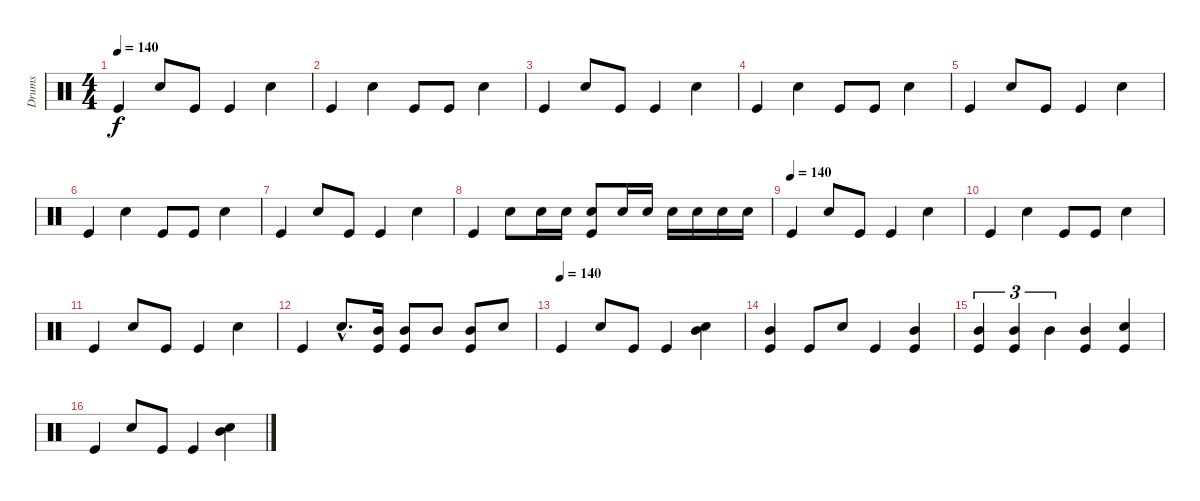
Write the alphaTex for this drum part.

\track ("Drums" "Drums") {instrument percussion}
\staff {score}
\articulation defaults
\ts (4 4)
\tempo 140
\clef neutral
\ks c "Kick (hit)".4{dy f} "Snare (hit) 2".8 "Kick (hit)".8 "Kick (hit)".4 "Snare (hit) 2".4
|
"Kick (hit)".4 "Snare (hit) 2".4 "Kick (hit)".8 "Kick (hit)".8 "Snare (hit) 2".4 |
"Kick (hit)".4 "Snare (hit) 2".8 "Kick (hit)".8 "Kick (hit)".4 "Snare (hit) 2".4 |
"Kick (hit)".4 "Snare (hit) 2".4 "Kick (hit)".8 "Kick (hit)".8 "Snare (hit) 2".4 |
"Kick (hit)".4 "Snare (hit) 2".8 "Kick (hit)".8 "Kick (hit)".4 "Snare (hit) 2".4 |
"Kick (hit)".4 "Snare (hit) 2".4 "Kick (hit)".8 "Kick (hit)".8 "Snare (hit) 2".4 |
"Kick (hit)".4 "Snare (hit) 2".8 "Kick (hit)".8 "Kick (hit)".4 "Snare (hit) 2".4 |
"Kick (hit)".4 "Snare (hit) 2".8 "Snare (hit) 2".16 "Snare (hit) 2".16 ("Snare (hit) 2" "Kick (hit)").8 "Snare (hit) 2".16 "Snare (hit) 2".16 "Snare (hit) 2".16 "Snare (hit) 2".16 "Snare (hit) 2".16 "Snare (hit) 2".16 |
\tempo (140)
"Kick (hit)".4 "Snare (hit) 2".8 "Kick (hit)".8 "Kick (hit)".4 "Snare (hit) 2".4 |
"Kick (hit)".4 "Snare (hit) 2".4 "Kick (hit)".8 "Kick (hit)".8 "Snare (hit) 2".4 |
"Kick (hit)".4 "Snare (hit) 2".8 "Kick (hit)".8 "Kick (hit)".4 "Snare (hit) 2".4 |
"Kick (hit)".4 "Snare (hit) 2"{hac}.8{d} ("Kick (hit)" "Mid Tom (hit)").16 ("Kick (hit)" "Mid Tom (hit)").8 "Mid Tom (hit)".8 ("Kick (hit)" "Mid Tom (hit)").8 "Snare (hit) 2".8 |
\tempo (140)
"Kick (hit)".4 "Snare (hit) 2".8 "Kick (hit)".8 "Kick (hit)".4 ("Snare (hit) 2" "Mid Tom (hit)").4 |
("Kick (hit)" "Mid Tom (hit)").4 "Kick (hit)".8 "Snare (hit) 2".8 "Kick (hit)".4 ("Kick (hit)" "Mid Tom (hit)").4 |
("Kick (hit)" "Mid Tom (hit)").4{tu (3 2)} ("Kick (hit)" "Mid Tom (hit)").4{tu (3 2)} "Mid Tom (hit)".4{tu (3 2)} ("Kick (hit)" "Mid Tom (hit)").4 ("Kick (hit)" "Snare (hit) 2").4 |
"Kick (hit)".4 "Snare (hit) 2".8 "Kick (hit)".8 "Kick (hit)".4 ("Snare (hit) 2" "Mid Tom (hit)").4
